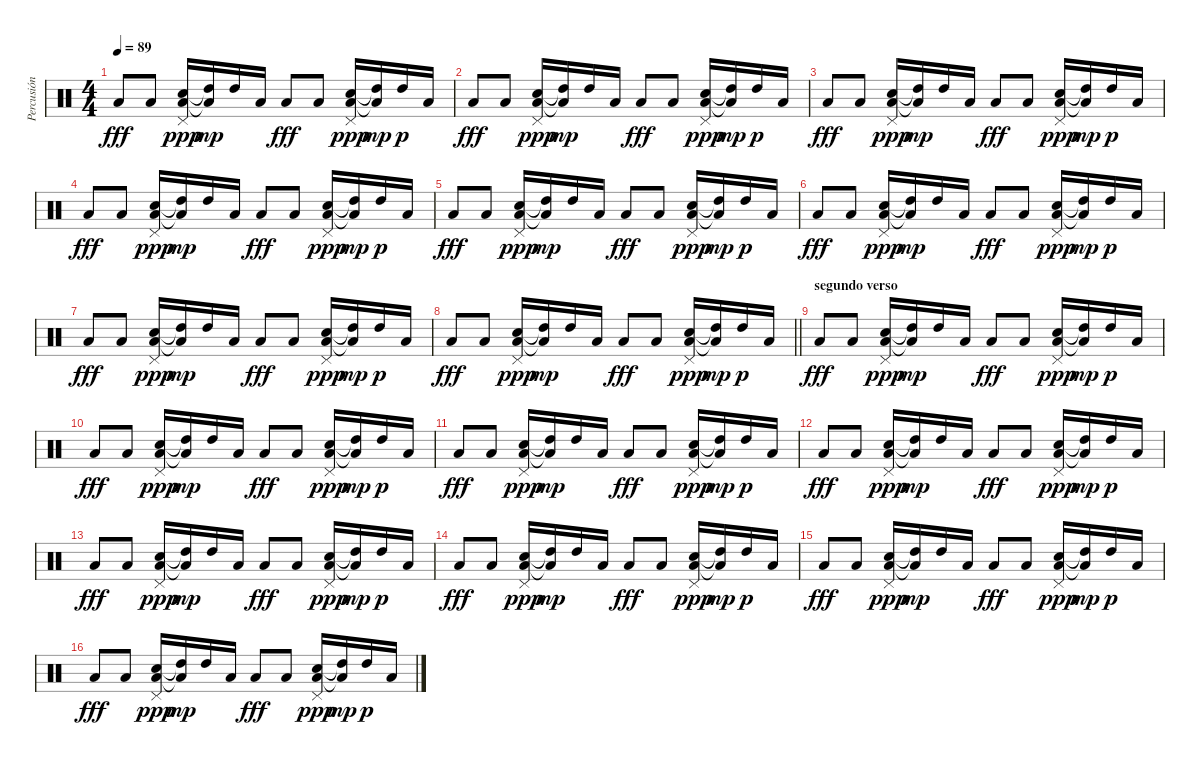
\track ("Percusión" "Percusión") {instrument percussion}
\staff {score}
\articulation defaults
\ts (4 4)
\tempo 89
\clef neutral
\ks c "Low Floor Tom (hit)".8{dy fff} "Low Floor Tom (hit)".8
("Electric Snare (hit)" "Low Floor Tom (hit)" "Pedal Hi-Hat (hit)").16{dy ppp} ("High Tom (hit)"{t} "Low Floor Tom (hit)"{t}).16{dy mp} "High Tom (hit)".16 "Low Tom (hit)".16 "Low Floor Tom (hit)".8{dy fff} "Low Floor Tom (hit)".8 ("Electric Snare (hit)" "Low Floor Tom (hit)" "Pedal Hi-Hat (hit)").16{dy ppp} ("High Tom (hit)"{t} "Low Floor Tom (hit)"{t}).16{dy mp} "High Tom (hit)".16{dy p} "Low Tom (hit)".16 |
"Low Floor Tom (hit)".8{dy fff} "Low Floor Tom (hit)".8 ("Electric Snare (hit)" "Low Floor Tom (hit)" "Pedal Hi-Hat (hit)").16{dy ppp} ("High Tom (hit)"{t} "Low Floor Tom (hit)"{t}).16{dy mp} "High Tom (hit)".16 "Low Tom (hit)".16 "Low Floor Tom (hit)".8{dy fff} "Low Floor Tom (hit)".8 ("Electric Snare (hit)" "Low Floor Tom (hit)" "Pedal Hi-Hat (hit)").16{dy ppp} ("High Tom (hit)"{t} "Low Floor Tom (hit)"{t}).16{dy mp} "High Tom (hit)".16{dy p} "Low Tom (hit)".16 |
"Low Floor Tom (hit)".8{dy fff} "Low Floor Tom (hit)".8 ("Electric Snare (hit)" "Low Floor Tom (hit)" "Pedal Hi-Hat (hit)").16{dy ppp} ("High Tom (hit)"{t} "Low Floor Tom (hit)"{t}).16{dy mp} "High Tom (hit)".16 "Low Tom (hit)".16 "Low Floor Tom (hit)".8{dy fff} "Low Floor Tom (hit)".8 ("Electric Snare (hit)" "Low Floor Tom (hit)" "Pedal Hi-Hat (hit)").16{dy ppp} ("High Tom (hit)"{t} "Low Floor Tom (hit)"{t}).16{dy mp} "High Tom (hit)".16{dy p} "Low Tom (hit)".16 |
"Low Floor Tom (hit)".8{dy fff} "Low Floor Tom (hit)".8 ("Electric Snare (hit)" "Low Floor Tom (hit)" "Pedal Hi-Hat (hit)").16{dy ppp} ("High Tom (hit)"{t} "Low Floor Tom (hit)"{t}).16{dy mp} "High Tom (hit)".16 "Low Tom (hit)".16 "Low Floor Tom (hit)".8{dy fff} "Low Floor Tom (hit)".8 ("Electric Snare (hit)" "Low Floor Tom (hit)" "Pedal Hi-Hat (hit)").16{dy ppp} ("High Tom (hit)"{t} "Low Floor Tom (hit)"{t}).16{dy mp} "High Tom (hit)".16{dy p} "Low Tom (hit)".16 |
"Low Floor Tom (hit)".8{dy fff} "Low Floor Tom (hit)".8 ("Electric Snare (hit)" "Low Floor Tom (hit)" "Pedal Hi-Hat (hit)").16{dy ppp} ("High Tom (hit)"{t} "Low Floor Tom (hit)"{t}).16{dy mp} "High Tom (hit)".16 "Low Tom (hit)".16 "Low Floor Tom (hit)".8{dy fff} "Low Floor Tom (hit)".8 ("Electric Snare (hit)" "Low Floor Tom (hit)" "Pedal Hi-Hat (hit)").16{dy ppp} ("High Tom (hit)"{t} "Low Floor Tom (hit)"{t}).16{dy mp} "High Tom (hit)".16{dy p} "Low Tom (hit)".16 |
"Low Floor Tom (hit)".8{dy fff} "Low Floor Tom (hit)".8 ("Electric Snare (hit)" "Low Floor Tom (hit)" "Pedal Hi-Hat (hit)").16{dy ppp} ("High Tom (hit)"{t} "Low Floor Tom (hit)"{t}).16{dy mp} "High Tom (hit)".16 "Low Tom (hit)".16 "Low Floor Tom (hit)".8{dy fff} "Low Floor Tom (hit)".8 ("Electric Snare (hit)" "Low Floor Tom (hit)" "Pedal Hi-Hat (hit)").16{dy ppp} ("High Tom (hit)"{t} "Low Floor Tom (hit)"{t}).16{dy mp} "High Tom (hit)".16{dy p} "Low Tom (hit)".16 |
"Low Floor Tom (hit)".8{dy fff} "Low Floor Tom (hit)".8 ("Electric Snare (hit)" "Low Floor Tom (hit)" "Pedal Hi-Hat (hit)").16{dy ppp} ("High Tom (hit)"{t} "Low Floor Tom (hit)"{t}).16{dy mp} "High Tom (hit)".16 "Low Tom (hit)".16 "Low Floor Tom (hit)".8{dy fff} "Low Floor Tom (hit)".8 ("Electric Snare (hit)" "Low Floor Tom (hit)" "Pedal Hi-Hat (hit)").16{dy ppp} ("High Tom (hit)"{t} "Low Floor Tom (hit)"{t}).16{dy mp} "High Tom (hit)".16{dy p} "Low Tom (hit)".16 |
\barLineRight lightlight "Low Floor Tom (hit)".8{dy fff} "Low Floor Tom (hit)".8
("Electric Snare (hit)" "Low Floor Tom (hit)" "Pedal Hi-Hat (hit)").16{dy ppp} ("High Tom (hit)"{t} "Low Floor Tom (hit)"{t}).16{dy mp} "High Tom (hit)".16 "Low Tom (hit)".16 "Low Floor Tom (hit)".8{dy fff} "Low Floor Tom (hit)".8 ("Electric Snare (hit)" "Low Floor Tom (hit)" "Pedal Hi-Hat (hit)").16{dy ppp} ("High Tom (hit)"{t} "Low Floor Tom (hit)"{t}).16{dy mp} "High Tom (hit)".16{dy p} "Low Tom (hit)".16 |
\section ("" "segundo verso")
"Low Floor Tom (hit)".8{dy fff} "Low Floor Tom (hit)".8 ("Electric Snare (hit)" "Low Floor Tom (hit)" "Pedal Hi-Hat (hit)").16{dy ppp} ("High Tom (hit)"{t} "Low Floor Tom (hit)"{t}).16{dy mp} "High Tom (hit)".16 "Low Tom (hit)".16 "Low Floor Tom (hit)".8{dy fff} "Low Floor Tom (hit)".8 ("Electric Snare (hit)" "Low Floor Tom (hit)" "Pedal Hi-Hat (hit)").16{dy ppp} ("High Tom (hit)"{t} "Low Floor Tom (hit)"{t}).16{dy mp} "High Tom (hit)".16{dy p} "Low Tom (hit)".16 |
"Low Floor Tom (hit)".8{dy fff} "Low Floor Tom (hit)".8 ("Electric Snare (hit)" "Low Floor Tom (hit)" "Pedal Hi-Hat (hit)").16{dy ppp} ("High Tom (hit)"{t} "Low Floor Tom (hit)"{t}).16{dy mp} "High Tom (hit)".16 "Low Tom (hit)".16 "Low Floor Tom (hit)".8{dy fff} "Low Floor Tom (hit)".8 ("Electric Snare (hit)" "Low Floor Tom (hit)" "Pedal Hi-Hat (hit)").16{dy ppp} ("High Tom (hit)"{t} "Low Floor Tom (hit)"{t}).16{dy mp} "High Tom (hit)".16{dy p} "Low Tom (hit)".16 |
"Low Floor Tom (hit)".8{dy fff} "Low Floor Tom (hit)".8 ("Electric Snare (hit)" "Low Floor Tom (hit)" "Pedal Hi-Hat (hit)").16{dy ppp} ("High Tom (hit)"{t} "Low Floor Tom (hit)"{t}).16{dy mp} "High Tom (hit)".16 "Low Tom (hit)".16 "Low Floor Tom (hit)".8{dy fff} "Low Floor Tom (hit)".8 ("Electric Snare (hit)" "Low Floor Tom (hit)" "Pedal Hi-Hat (hit)").16{dy ppp} ("High Tom (hit)"{t} "Low Floor Tom (hit)"{t}).16{dy mp} "High Tom (hit)".16{dy p} "Low Tom (hit)".16 |
"Low Floor Tom (hit)".8{dy fff} "Low Floor Tom (hit)".8 ("Electric Snare (hit)" "Low Floor Tom (hit)" "Pedal Hi-Hat (hit)").16{dy ppp} ("High Tom (hit)"{t} "Low Floor Tom (hit)"{t}).16{dy mp} "High Tom (hit)".16 "Low Tom (hit)".16 "Low Floor Tom (hit)".8{dy fff} "Low Floor Tom (hit)".8 ("Electric Snare (hit)" "Low Floor Tom (hit)" "Pedal Hi-Hat (hit)").16{dy ppp} ("High Tom (hit)"{t} "Low Floor Tom (hit)"{t}).16{dy mp} "High Tom (hit)".16{dy p} "Low Tom (hit)".16 |
"Low Floor Tom (hit)".8{dy fff} "Low Floor Tom (hit)".8 ("Electric Snare (hit)" "Low Floor Tom (hit)" "Pedal Hi-Hat (hit)").16{dy ppp} ("High Tom (hit)"{t} "Low Floor Tom (hit)"{t}).16{dy mp} "High Tom (hit)".16 "Low Tom (hit)".16 "Low Floor Tom (hit)".8{dy fff} "Low Floor Tom (hit)".8 ("Electric Snare (hit)" "Low Floor Tom (hit)" "Pedal Hi-Hat (hit)").16{dy ppp} ("High Tom (hit)"{t} "Low Floor Tom (hit)"{t}).16{dy mp} "High Tom (hit)".16{dy p} "Low Tom (hit)".16 |
"Low Floor Tom (hit)".8{dy fff} "Low Floor Tom (hit)".8 ("Electric Snare (hit)" "Low Floor Tom (hit)" "Pedal Hi-Hat (hit)").16{dy ppp} ("High Tom (hit)"{t} "Low Floor Tom (hit)"{t}).16{dy mp} "High Tom (hit)".16 "Low Tom (hit)".16 "Low Floor Tom (hit)".8{dy fff} "Low Floor Tom (hit)".8 ("Electric Snare (hit)" "Low Floor Tom (hit)" "Pedal Hi-Hat (hit)").16{dy ppp} ("High Tom (hit)"{t} "Low Floor Tom (hit)"{t}).16{dy mp} "High Tom (hit)".16{dy p} "Low Tom (hit)".16 |
"Low Floor Tom (hit)".8{dy fff} "Low Floor Tom (hit)".8 ("Electric Snare (hit)" "Low Floor Tom (hit)" "Pedal Hi-Hat (hit)").16{dy ppp} ("High Tom (hit)"{t} "Low Floor Tom (hit)"{t}).16{dy mp} "High Tom (hit)".16 "Low Tom (hit)".16 "Low Floor Tom (hit)".8{dy fff} "Low Floor Tom (hit)".8 ("Electric Snare (hit)" "Low Floor Tom (hit)" "Pedal Hi-Hat (hit)").16{dy ppp} ("High Tom (hit)"{t} "Low Floor Tom (hit)"{t}).16{dy mp} "High Tom (hit)".16{dy p} "Low Tom (hit)".16 |
"Low Floor Tom (hit)".8{dy fff} "Low Floor Tom (hit)".8 ("Electric Snare (hit)" "Low Floor Tom (hit)" "Pedal Hi-Hat (hit)").16{dy ppp} ("High Tom (hit)"{t} "Low Floor Tom (hit)"{t}).16{dy mp} "High Tom (hit)".16 "Low Tom (hit)".16 "Low Floor Tom (hit)".8{dy fff} "Low Floor Tom (hit)".8 ("Electric Snare (hit)" "Low Floor Tom (hit)" "Pedal Hi-Hat (hit)").16{dy ppp} ("High Tom (hit)"{t} "Low Floor Tom (hit)"{t}).16{dy mp} "High Tom (hit)".16{dy p} "Low Tom (hit)".16
